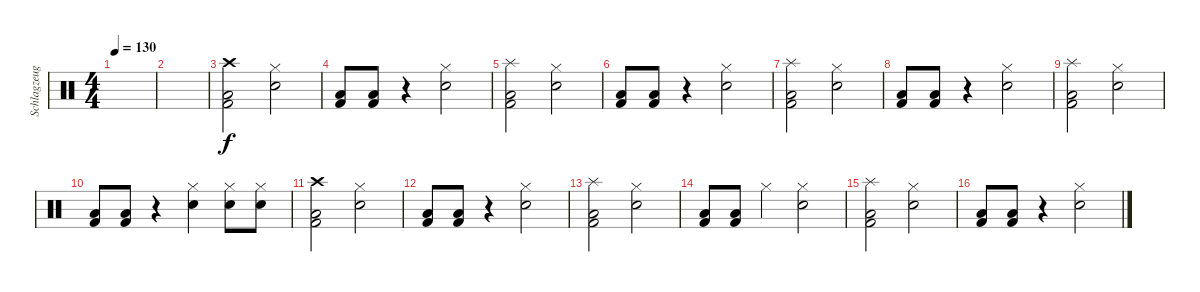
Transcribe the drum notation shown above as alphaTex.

\track ("Schlagzeug" "Schlagzeug") {instrument percussion}
\staff {score}
\articulation defaults
\ts (4 4)
\tempo 130
\clef neutral
\ks c
|
|
("Crash high (hit)" "Low Floor Tom (hit)" "Kick (hit) 2").2 ("Snare (hit) 2" "Hi-Hat (closed)").2 |
("Low Floor Tom (hit)" "Kick (hit) 2").8 ("Low Floor Tom (hit)" "Kick (hit) 2").8 r.4 ("Snare (hit) 2" "Hi-Hat (closed)").2 |
("Splash (hit)" "Low Floor Tom (hit)" "Kick (hit) 2").2 ("Snare (hit) 2" "Hi-Hat (closed)").2 |
("Low Floor Tom (hit)" "Kick (hit) 2").8 ("Low Floor Tom (hit)" "Kick (hit) 2").8 r.4 ("Snare (hit) 2" "Hi-Hat (closed)").2 |
("Splash (hit)" "Low Floor Tom (hit)" "Kick (hit) 2").2 ("Snare (hit) 2" "Hi-Hat (closed)").2 |
("Low Floor Tom (hit)" "Kick (hit) 2").8 ("Low Floor Tom (hit)" "Kick (hit) 2").8 r.4 ("Snare (hit) 2" "Hi-Hat (closed)").2 |
("Splash (hit)" "Low Floor Tom (hit)" "Kick (hit) 2").2 ("Snare (hit) 2" "Hi-Hat (closed)").2 |
("Low Floor Tom (hit)" "Kick (hit) 2").8 ("Low Floor Tom (hit)" "Kick (hit) 2").8 r.4 ("Snare (hit) 2" "Hi-Hat (closed)").4 ("Snare (hit) 2" "Hi-Hat (closed)").8 ("Snare (hit) 2" "Hi-Hat (closed)").8 |
("Crash high (hit)" "Low Floor Tom (hit)" "Kick (hit) 2").2 ("Snare (hit) 2" "Hi-Hat (closed)").2 |
("Low Floor Tom (hit)" "Kick (hit) 2").8 ("Low Floor Tom (hit)" "Kick (hit) 2").8 r.4 ("Snare (hit) 2" "Hi-Hat (closed)").2 |
("Splash (hit)" "Low Floor Tom (hit)" "Kick (hit) 2").2 ("Snare (hit) 2" "Hi-Hat (closed)").2 |
("Low Floor Tom (hit)" "Kick (hit) 2").8 ("Low Floor Tom (hit)" "Kick (hit) 2").8 "Hi-Hat (closed)".4 ("Snare (hit) 2" "Hi-Hat (closed)").2 |
("Splash (hit)" "Low Floor Tom (hit)" "Kick (hit) 2").2 ("Snare (hit) 2" "Hi-Hat (closed)").2 |
("Low Floor Tom (hit)" "Kick (hit) 2").8 ("Low Floor Tom (hit)" "Kick (hit) 2").8 r.4 ("Snare (hit) 2" "Hi-Hat (closed)").2
